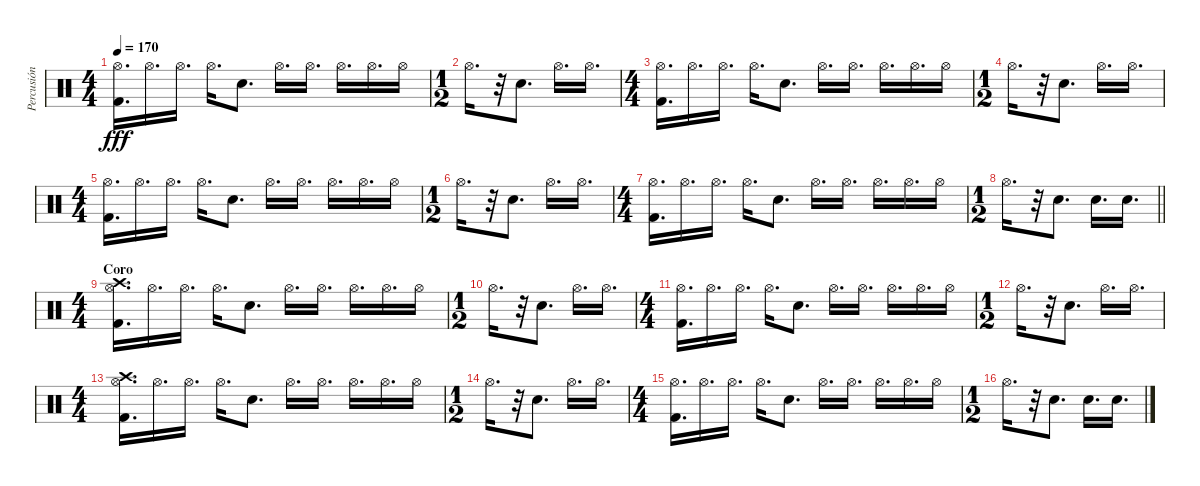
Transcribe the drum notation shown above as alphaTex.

\track ("Percusión" "Percusión") {instrument percussion}
\staff {score}
\articulation defaults
\ts (4 4)
\tempo 170
\clef neutral
\ks c
("Hi-Hat (open)" "Kick (hit) 2").16{d dy fff} "Hi-Hat (open)".16{d} "Hi-Hat (open)".16{d} "Hi-Hat (open)".16{d} "Electric Snare (hit)".8{d} "Hi-Hat (open)".16{d} "Hi-Hat (open)".16{d} "Hi-Hat (open)".16{d} "Hi-Hat (open)".16{d} "Hi-Hat (open)".16 |
\ts (1 2)
"Hi-Hat (open)".16{d} r.32 "Electric Snare (hit)".8{d} "Hi-Hat (open)".16{d} "Hi-Hat (open)".16{d} |
\ts (4 4)
("Hi-Hat (open)" "Kick (hit) 2").16{d} "Hi-Hat (open)".16{d} "Hi-Hat (open)".16{d} "Hi-Hat (open)".16{d} "Electric Snare (hit)".8{d} "Hi-Hat (open)".16{d} "Hi-Hat (open)".16{d} "Hi-Hat (open)".16{d} "Hi-Hat (open)".16{d} "Hi-Hat (open)".16 |
\ts (1 2)
"Hi-Hat (open)".16{d} r.32 "Electric Snare (hit)".8{d} "Hi-Hat (open)".16{d} "Hi-Hat (open)".16{d} |
\ts (4 4)
("Hi-Hat (open)" "Kick (hit) 2").16{d} "Hi-Hat (open)".16{d} "Hi-Hat (open)".16{d} "Hi-Hat (open)".16{d} "Electric Snare (hit)".8{d} "Hi-Hat (open)".16{d} "Hi-Hat (open)".16{d} "Hi-Hat (open)".16{d} "Hi-Hat (open)".16{d} "Hi-Hat (open)".16 |
\ts (1 2)
"Hi-Hat (open)".16{d} r.32 "Electric Snare (hit)".8{d} "Hi-Hat (open)".16{d} "Hi-Hat (open)".16{d} |
\ts (4 4)
("Hi-Hat (open)" "Kick (hit) 2").16{d} "Hi-Hat (open)".16{d} "Hi-Hat (open)".16{d} "Hi-Hat (open)".16{d} "Electric Snare (hit)".8{d} "Hi-Hat (open)".16{d} "Hi-Hat (open)".16{d} "Hi-Hat (open)".16{d} "Hi-Hat (open)".16{d} "Hi-Hat (open)".16 |
\ts (1 2)
\barLineRight lightlight "Hi-Hat (open)".16{d}
r.32 "Electric Snare (hit)".8{d} "Electric Snare (hit)".16{d} "Electric Snare (hit)".16{d} |
\ts (4 4)
\section ("" "Coro")
("Crash high (hit)" "Hi-Hat (open)" "Kick (hit) 2").16{d} "Hi-Hat (open)".16{d} "Hi-Hat (open)".16{d} "Hi-Hat (open)".16{d} "Electric Snare (hit)".8{d} "Hi-Hat (open)".16{d} "Hi-Hat (open)".16{d} "Hi-Hat (open)".16{d} "Hi-Hat (open)".16{d} "Hi-Hat (open)".16 |
\ts (1 2)
"Hi-Hat (open)".16{d} r.32 "Electric Snare (hit)".8{d} "Hi-Hat (open)".16{d} "Hi-Hat (open)".16{d} |
\ts (4 4)
("Hi-Hat (open)" "Kick (hit) 2").16{d} "Hi-Hat (open)".16{d} "Hi-Hat (open)".16{d} "Hi-Hat (open)".16{d} "Electric Snare (hit)".8{d} "Hi-Hat (open)".16{d} "Hi-Hat (open)".16{d} "Hi-Hat (open)".16{d} "Hi-Hat (open)".16{d} "Hi-Hat (open)".16 |
\ts (1 2)
"Hi-Hat (open)".16{d} r.32 "Electric Snare (hit)".8{d} "Hi-Hat (open)".16{d} "Hi-Hat (open)".16{d} |
\ts (4 4)
("Crash high (hit)" "Hi-Hat (open)" "Kick (hit) 2").16{d} "Hi-Hat (open)".16{d} "Hi-Hat (open)".16{d} "Hi-Hat (open)".16{d} "Electric Snare (hit)".8{d} "Hi-Hat (open)".16{d} "Hi-Hat (open)".16{d} "Hi-Hat (open)".16{d} "Hi-Hat (open)".16{d} "Hi-Hat (open)".16 |
\ts (1 2)
"Hi-Hat (open)".16{d} r.32 "Electric Snare (hit)".8{d} "Hi-Hat (open)".16{d} "Hi-Hat (open)".16{d} |
\ts (4 4)
("Hi-Hat (open)" "Kick (hit) 2").16{d} "Hi-Hat (open)".16{d} "Hi-Hat (open)".16{d} "Hi-Hat (open)".16{d} "Electric Snare (hit)".8{d} "Hi-Hat (open)".16{d} "Hi-Hat (open)".16{d} "Hi-Hat (open)".16{d} "Hi-Hat (open)".16{d} "Hi-Hat (open)".16 |
\ts (1 2)
"Hi-Hat (open)".16{d} r.32 "Electric Snare (hit)".8{d} "Electric Snare (hit)".16{d} "Electric Snare (hit)".16{d}
